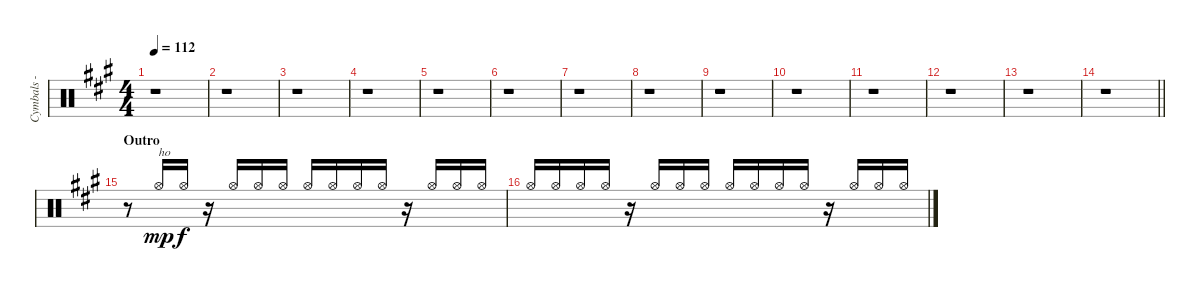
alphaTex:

\track ("Cymbals - hi-hat" "Cymbals - ") {instrument percussion}
\staff {score}
\articulation defaults
\ts (4 4)
\tempo 112
\clef neutral
\ks f#minor
r.1{dy f} |
r.1 |
r.1 |
r.1 |
r.1 |
r.1 |
r.1 |
r.1 |
r.1 |
r.1 |
r.1 |
r.1 |
r.1 |
\barLineRight lightlight
r.1 |
\section ("" "Outro")
r.8 "Hi-Hat (open)".16{txt "ho" dy mp beam Up} "Hi-Hat (open)".16{dy f beam Up} r.16 "Hi-Hat (open)".16{beam Up} "Hi-Hat (open)".16{beam Up} "Hi-Hat (open)".16{beam Up} "Hi-Hat (open)".16{beam Up} "Hi-Hat (open)".16{beam Up} "Hi-Hat (open)".16{beam Up} "Hi-Hat (open)".16{beam Up} r.16 "Hi-Hat (open)".16{beam Up} "Hi-Hat (open)".16{beam Up} "Hi-Hat (open)".16{beam Up} |
"Hi-Hat (open)".16{beam Up} "Hi-Hat (open)".16{beam Up} "Hi-Hat (open)".16{beam Up} "Hi-Hat (open)".16{beam Up} r.16 "Hi-Hat (open)".16{beam Up} "Hi-Hat (open)".16{beam Up} "Hi-Hat (open)".16{beam Up} "Hi-Hat (open)".16{beam Up} "Hi-Hat (open)".16{beam Up} "Hi-Hat (open)".16{beam Up} "Hi-Hat (open)".16{beam Up} r.16 "Hi-Hat (open)".16{beam Up} "Hi-Hat (open)".16{beam Up} "Hi-Hat (open)".16{beam Up}
